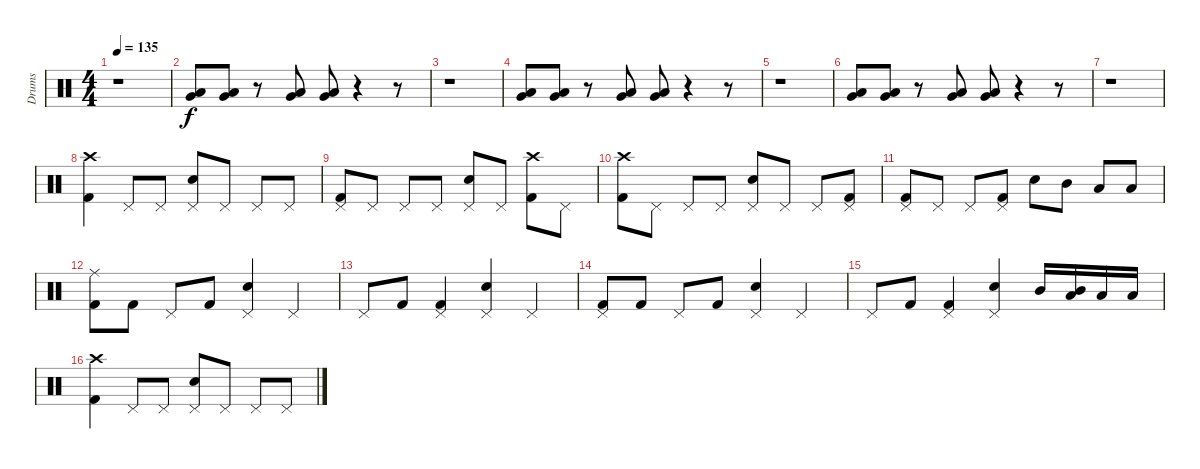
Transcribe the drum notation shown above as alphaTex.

\track ("Drums" "Drums") {instrument percussion}
\staff {score}
\articulation defaults
\ts (4 4)
\tempo 135
\clef neutral
\ks c
r.1{dy f} |
("Very Low Tom (hit)" "Low Tom (hit)").8 ("Very Low Tom (hit)" "Low Tom (hit)").8 r.8 ("Very Low Tom (hit)" "Low Tom (hit)").8 ("Very Low Tom (hit)" "Low Tom (hit)").8 r.4 r.8 |
r.1 |
("Very Low Tom (hit)" "Low Tom (hit)").8 ("Very Low Tom (hit)" "Low Tom (hit)").8 r.8 ("Very Low Tom (hit)" "Low Tom (hit)").8 ("Very Low Tom (hit)" "Low Tom (hit)").8 r.4 r.8 |
r.1 |
("Very Low Tom (hit)" "Low Tom (hit)").8 ("Very Low Tom (hit)" "Low Tom (hit)").8 r.8 ("Very Low Tom (hit)" "Low Tom (hit)").8 ("Very Low Tom (hit)" "Low Tom (hit)").8 r.4 r.8 |
r.1 |
("Crash high (hit)" "Kick (hit) 2").4 "Pedal Hi-Hat (hit)".8 "Pedal Hi-Hat (hit)".8 ("Pedal Hi-Hat (hit)" "Electric Snare (hit)").8 "Pedal Hi-Hat (hit)".8 "Pedal Hi-Hat (hit)".8 "Pedal Hi-Hat (hit)".8 |
("Pedal Hi-Hat (hit)" "Kick (hit) 2").8 "Pedal Hi-Hat (hit)".8 "Pedal Hi-Hat (hit)".8 "Pedal Hi-Hat (hit)".8 ("Pedal Hi-Hat (hit)" "Electric Snare (hit)").8 "Pedal Hi-Hat (hit)".8 ("Crash high (hit)" "Kick (hit) 2").8 "Pedal Hi-Hat (hit)".8 |
("Crash high (hit)" "Kick (hit) 2").8 "Pedal Hi-Hat (hit)".8 "Pedal Hi-Hat (hit)".8 "Pedal Hi-Hat (hit)".8 ("Pedal Hi-Hat (hit)" "Electric Snare (hit)").8 "Pedal Hi-Hat (hit)".8 "Pedal Hi-Hat (hit)".8 ("Pedal Hi-Hat (hit)" "Kick (hit) 2").8 |
("Pedal Hi-Hat (hit)" "Kick (hit) 2").8 "Pedal Hi-Hat (hit)".8 "Pedal Hi-Hat (hit)".8 ("Pedal Hi-Hat (hit)" "Kick (hit) 2").8 "Electric Snare (hit)".8 "Mid Tom (hit)".8 "Low Tom (hit)".8 "Low Tom (hit)".8 |
("Ride (middle)" "Kick (hit) 2").8 "Kick (hit) 2".8 "Pedal Hi-Hat (hit)".8 "Kick (hit) 2".8 ("Pedal Hi-Hat (hit)" "Electric Snare (hit)").4 "Pedal Hi-Hat (hit)".4 |
"Pedal Hi-Hat (hit)".8 "Kick (hit) 2".8 ("Pedal Hi-Hat (hit)" "Kick (hit) 2").4 ("Pedal Hi-Hat (hit)" "Electric Snare (hit)").4 "Pedal Hi-Hat (hit)".4 |
("Pedal Hi-Hat (hit)" "Kick (hit) 2").8 "Kick (hit) 2".8 "Pedal Hi-Hat (hit)".8 "Kick (hit) 2".8 ("Pedal Hi-Hat (hit)" "Electric Snare (hit)").4 "Pedal Hi-Hat (hit)".4 |
"Pedal Hi-Hat (hit)".8 "Kick (hit) 2".8 ("Pedal Hi-Hat (hit)" "Kick (hit) 2").4 ("Pedal Hi-Hat (hit)" "Electric Snare (hit)").4 "Mid Tom (hit)".16 ("Mid Tom (hit)" "Low Tom (hit)").16 "Low Tom (hit)".16 "Low Floor Tom (hit)".16 |
("Crash high (hit)" "Kick (hit) 2").4 "Pedal Hi-Hat (hit)".8 "Pedal Hi-Hat (hit)".8 ("Pedal Hi-Hat (hit)" "Electric Snare (hit)").8 "Pedal Hi-Hat (hit)".8 "Pedal Hi-Hat (hit)".8 "Pedal Hi-Hat (hit)".8
